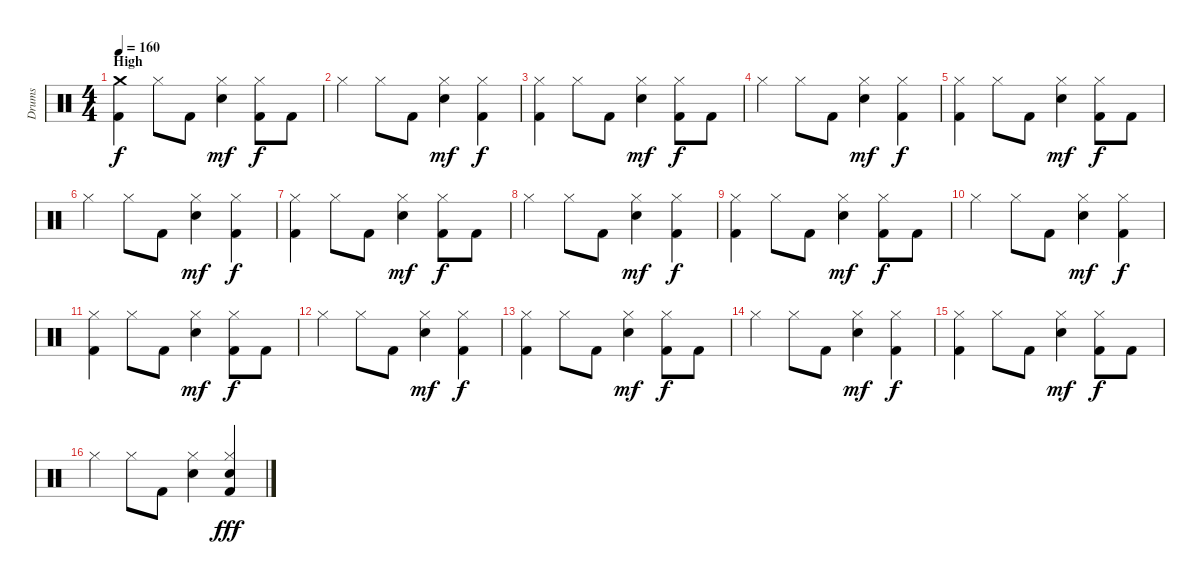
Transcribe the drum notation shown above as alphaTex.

\track ("Drums" "Drums") {instrument percussion}
\staff {score}
\articulation defaults
\ts (4 4)
\section ("" "High")
\tempo 160
\clef neutral
\ks c
("Crash medium (hit)" "Kick (hit) 2").4{dy f} "Hi-Hat (closed)".8 "Kick (hit) 2".8 ("Hi-Hat (closed)" "Electric Snare (hit)").4{dy mf} ("Hi-Hat (closed)" "Kick (hit) 2").8{dy f} "Kick (hit) 2".8 |
"Hi-Hat (closed)".4 "Hi-Hat (closed)".8 "Kick (hit) 2".8 ("Hi-Hat (closed)" "Electric Snare (hit)").4{dy mf} ("Hi-Hat (closed)" "Kick (hit) 2").4{dy f} |
("Hi-Hat (closed)" "Kick (hit) 2").4 "Hi-Hat (closed)".8 "Kick (hit) 2".8 ("Hi-Hat (closed)" "Electric Snare (hit)").4{dy mf} ("Hi-Hat (closed)" "Kick (hit) 2").8{dy f} "Kick (hit) 2".8 |
"Hi-Hat (closed)".4 "Hi-Hat (closed)".8 "Kick (hit) 2".8 ("Hi-Hat (closed)" "Electric Snare (hit)").4{dy mf} ("Hi-Hat (closed)" "Kick (hit) 2").4{dy f} |
("Hi-Hat (closed)" "Kick (hit) 2").4 "Hi-Hat (closed)".8 "Kick (hit) 2".8 ("Hi-Hat (closed)" "Electric Snare (hit)").4{dy mf} ("Hi-Hat (closed)" "Kick (hit) 2").8{dy f} "Kick (hit) 2".8 |
"Hi-Hat (closed)".4 "Hi-Hat (closed)".8 "Kick (hit) 2".8 ("Hi-Hat (closed)" "Electric Snare (hit)").4{dy mf} ("Hi-Hat (closed)" "Kick (hit) 2").4{dy f} |
("Hi-Hat (closed)" "Kick (hit) 2").4 "Hi-Hat (closed)".8 "Kick (hit) 2".8 ("Hi-Hat (closed)" "Electric Snare (hit)").4{dy mf} ("Hi-Hat (closed)" "Kick (hit) 2").8{dy f} "Kick (hit) 2".8 |
"Hi-Hat (closed)".4 "Hi-Hat (closed)".8 "Kick (hit) 2".8 ("Hi-Hat (closed)" "Electric Snare (hit)").4{dy mf} ("Hi-Hat (closed)" "Kick (hit) 2").4{dy f} |
("Hi-Hat (closed)" "Kick (hit) 2").4 "Hi-Hat (closed)".8 "Kick (hit) 2".8 ("Hi-Hat (closed)" "Electric Snare (hit)").4{dy mf} ("Hi-Hat (closed)" "Kick (hit) 2").8{dy f} "Kick (hit) 2".8 |
"Hi-Hat (closed)".4 "Hi-Hat (closed)".8 "Kick (hit) 2".8 ("Hi-Hat (closed)" "Electric Snare (hit)").4{dy mf} ("Hi-Hat (closed)" "Kick (hit) 2").4{dy f} |
("Hi-Hat (closed)" "Kick (hit) 2").4 "Hi-Hat (closed)".8 "Kick (hit) 2".8 ("Hi-Hat (closed)" "Electric Snare (hit)").4{dy mf} ("Hi-Hat (closed)" "Kick (hit) 2").8{dy f} "Kick (hit) 2".8 |
"Hi-Hat (closed)".4 "Hi-Hat (closed)".8 "Kick (hit) 2".8 ("Hi-Hat (closed)" "Electric Snare (hit)").4{dy mf} ("Hi-Hat (closed)" "Kick (hit) 2").4{dy f} |
("Hi-Hat (closed)" "Kick (hit) 2").4 "Hi-Hat (closed)".8 "Kick (hit) 2".8 ("Hi-Hat (closed)" "Electric Snare (hit)").4{dy mf} ("Hi-Hat (closed)" "Kick (hit) 2").8{dy f} "Kick (hit) 2".8 |
"Hi-Hat (closed)".4 "Hi-Hat (closed)".8 "Kick (hit) 2".8 ("Hi-Hat (closed)" "Electric Snare (hit)").4{dy mf} ("Hi-Hat (closed)" "Kick (hit) 2").4{dy f} |
("Hi-Hat (closed)" "Kick (hit) 2").4 "Hi-Hat (closed)".8 "Kick (hit) 2".8 ("Hi-Hat (closed)" "Electric Snare (hit)").4{dy mf} ("Hi-Hat (closed)" "Kick (hit) 2").8{dy f} "Kick (hit) 2".8 |
"Hi-Hat (closed)".4 "Hi-Hat (closed)".8 "Kick (hit) 2".8 ("Hi-Hat (closed)" "Electric Snare (hit)").4 ("Hi-Hat (closed)" "Electric Snare (hit)" "Kick (hit) 2").4{dy fff}
